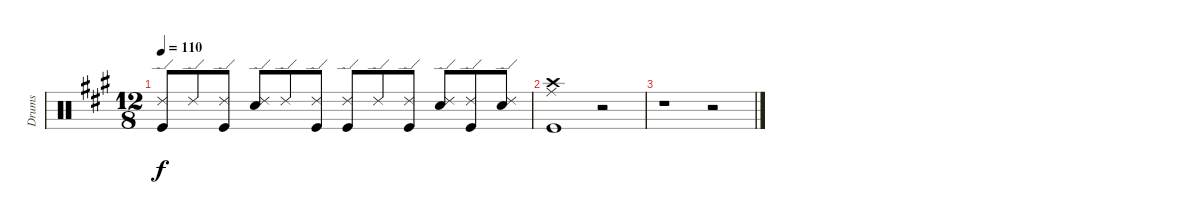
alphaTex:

\track ("Drums" "Drums") {instrument percussion}
\staff {score}
\articulation defaults
\ts (12 8)
\tempo 110
\clef neutral
\ks a
("Ride (edge) 2" "Kick (hit)").8{dy f} "Ride (edge) 2".8 ("Ride (edge) 2" "Kick (hit)").8 ("Ride (edge) 2" "Snare (hit) 2").8 "Ride (edge) 2".8 ("Ride (edge) 2" "Kick (hit)").8 ("Ride (edge) 2" "Kick (hit)").8 "Ride (edge) 2".8 ("Ride (edge) 2" "Kick (hit)").8 ("Ride (edge) 2" "Snare (hit) 2").8 ("Ride (edge) 2" "Kick (hit)").8 ("Ride (edge) 2" "Snare (hit) 2").8 |
("Ride (middle)" "Crash high (hit)" "Kick (hit)").1 r.2 |
r.1 r.2
